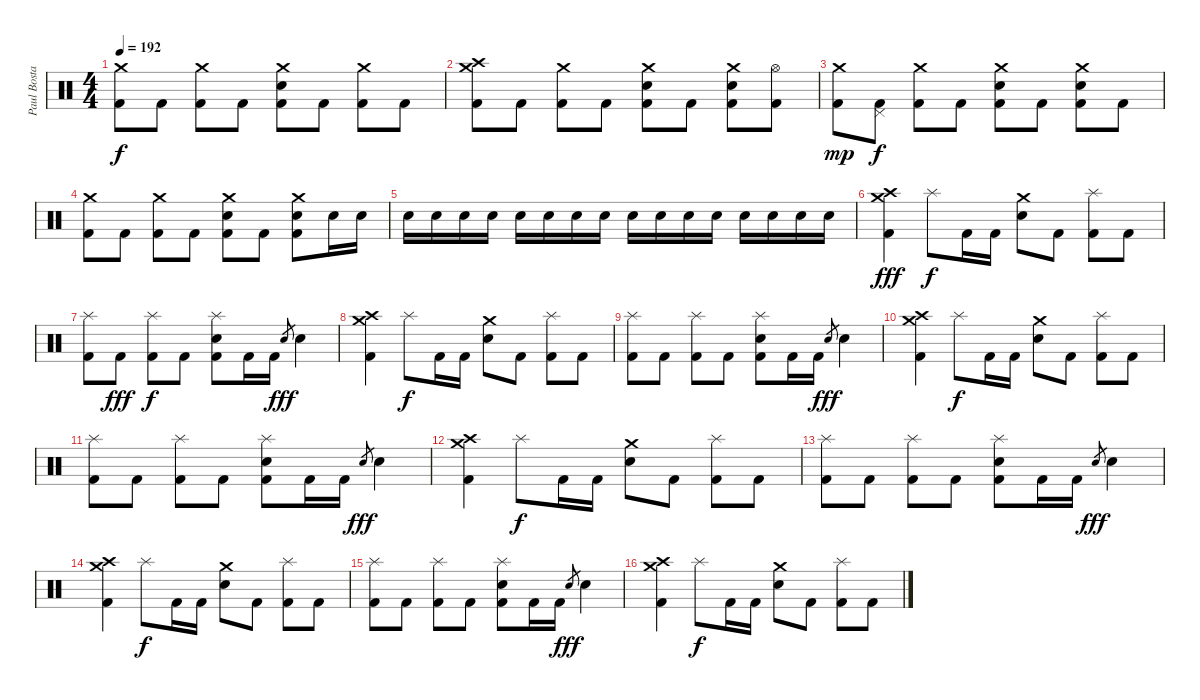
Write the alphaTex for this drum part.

\track ("Paul Bostaph" "Paul Bosta") {instrument percussion}
\staff {score}
\articulation defaults
\ts (4 4)
\tempo 192
\clef neutral
\ks c
("Crash medium (hit)" "Kick (hit) 2").8{dy f} "Kick (hit) 2".8 ("Crash medium (hit)" "Kick (hit) 2").8 "Kick (hit) 2".8 ("Electric Snare (hit)" "Crash medium (hit)" "Kick (hit) 2").8 "Kick (hit) 2".8 ("Crash medium (hit)" "Kick (hit) 2").8 "Kick (hit) 2".8 |
("Crash medium (hit)" "Crash high (hit)" "Kick (hit) 2").8 "Kick (hit) 2".8 ("Crash medium (hit)" "Kick (hit) 2").8 "Kick (hit) 2".8 ("Electric Snare (hit)" "Crash medium (hit)" "Kick (hit) 2").8 "Kick (hit) 2".8 ("Electric Snare (hit)" "Crash medium (hit)" "Kick (hit) 2").8 ("Hi-Hat (open)" "Kick (hit) 2").8 |
("Crash medium (hit)" "Kick (hit) 2").8{dy mp} ("Pedal Hi-Hat (hit)" "Kick (hit) 2").8{dy f} ("Crash medium (hit)" "Kick (hit) 2").8 "Kick (hit) 2".8 ("Electric Snare (hit)" "Crash medium (hit)" "Kick (hit) 2").8 "Kick (hit) 2".8 ("Electric Snare (hit)" "Crash medium (hit)" "Kick (hit) 2").8 "Kick (hit) 2".8 |
("Crash medium (hit)" "Kick (hit) 2").8 "Kick (hit) 2".8 ("Crash medium (hit)" "Kick (hit) 2").8 "Kick (hit) 2".8 ("Electric Snare (hit)" "Crash medium (hit)" "Kick (hit) 2").8 "Kick (hit) 2".8 ("Electric Snare (hit)" "Crash medium (hit)" "Kick (hit) 2").8 "Electric Snare (hit)".16 "Electric Snare (hit)".16 |
"Electric Snare (hit)".16 "Electric Snare (hit)".16 "Electric Snare (hit)".16 "Electric Snare (hit)".16 "Electric Snare (hit)".16 "Electric Snare (hit)".16 "Electric Snare (hit)".16 "Electric Snare (hit)".16 "Electric Snare (hit)".16 "Electric Snare (hit)".16 "Electric Snare (hit)".16 "Electric Snare (hit)".16 "Electric Snare (hit)".16 "Electric Snare (hit)".16 "Electric Snare (hit)".16 "Electric Snare (hit)".16 |
("Crash high (hit)" "Crash medium (hit)" "Kick (hit) 2").4{dy fff} "Splash (hit)".8{dy f} "Kick (hit) 2".16 "Kick (hit) 2".16 ("Crash medium (hit)" "Electric Snare (hit)").8 "Kick (hit) 2".8 ("Splash (hit)" "Kick (hit) 2").8 "Kick (hit) 2".8 |
("Splash (hit)" "Kick (hit) 2").8 "Kick (hit) 2".8{dy fff} ("Splash (hit)" "Kick (hit) 2").8{dy f} "Kick (hit) 2".8 ("Splash (hit)" "Electric Snare (hit)" "Kick (hit) 2").8 "Kick (hit) 2".16 "Kick (hit) 2".16 "Electric Snare (hit)".8{gr dy fff} "Electric Snare (hit)".4 |
("Crash high (hit)" "Crash medium (hit)" "Kick (hit) 2").4 "Splash (hit)".8{dy f} "Kick (hit) 2".16 "Kick (hit) 2".16 ("Crash medium (hit)" "Electric Snare (hit)").8 "Kick (hit) 2".8 ("Splash (hit)" "Kick (hit) 2").8 "Kick (hit) 2".8 |
("Splash (hit)" "Kick (hit) 2").8 "Kick (hit) 2".8 ("Splash (hit)" "Kick (hit) 2").8 "Kick (hit) 2".8 ("Splash (hit)" "Electric Snare (hit)" "Kick (hit) 2").8 "Kick (hit) 2".16 "Kick (hit) 2".16 "Electric Snare (hit)".8{gr dy fff} "Electric Snare (hit)".4 |
("Crash high (hit)" "Crash medium (hit)" "Kick (hit) 2").4 "Splash (hit)".8{dy f} "Kick (hit) 2".16 "Kick (hit) 2".16 ("Crash medium (hit)" "Electric Snare (hit)").8 "Kick (hit) 2".8 ("Splash (hit)" "Kick (hit) 2").8 "Kick (hit) 2".8 |
("Splash (hit)" "Kick (hit) 2").8 "Kick (hit) 2".8 ("Splash (hit)" "Kick (hit) 2").8 "Kick (hit) 2".8 ("Splash (hit)" "Electric Snare (hit)" "Kick (hit) 2").8 "Kick (hit) 2".16 "Kick (hit) 2".16 "Electric Snare (hit)".8{gr dy fff} "Electric Snare (hit)".4 |
("Crash high (hit)" "Crash medium (hit)" "Kick (hit) 2").4 "Splash (hit)".8{dy f} "Kick (hit) 2".16 "Kick (hit) 2".16 ("Crash medium (hit)" "Electric Snare (hit)").8 "Kick (hit) 2".8 ("Splash (hit)" "Kick (hit) 2").8 "Kick (hit) 2".8 |
("Splash (hit)" "Kick (hit) 2").8 "Kick (hit) 2".8 ("Splash (hit)" "Kick (hit) 2").8 "Kick (hit) 2".8 ("Splash (hit)" "Electric Snare (hit)" "Kick (hit) 2").8 "Kick (hit) 2".16 "Kick (hit) 2".16 "Electric Snare (hit)".8{gr dy fff} "Electric Snare (hit)".4 |
("Crash high (hit)" "Crash medium (hit)" "Kick (hit) 2").4 "Splash (hit)".8{dy f} "Kick (hit) 2".16 "Kick (hit) 2".16 ("Crash medium (hit)" "Electric Snare (hit)").8 "Kick (hit) 2".8 ("Splash (hit)" "Kick (hit) 2").8 "Kick (hit) 2".8 |
("Splash (hit)" "Kick (hit) 2").8 "Kick (hit) 2".8 ("Splash (hit)" "Kick (hit) 2").8 "Kick (hit) 2".8 ("Splash (hit)" "Electric Snare (hit)" "Kick (hit) 2").8 "Kick (hit) 2".16 "Kick (hit) 2".16 "Electric Snare (hit)".8{gr dy fff} "Electric Snare (hit)".4 |
("Crash high (hit)" "Crash medium (hit)" "Kick (hit) 2").4 "Splash (hit)".8{dy f} "Kick (hit) 2".16 "Kick (hit) 2".16 ("Crash medium (hit)" "Electric Snare (hit)").8 "Kick (hit) 2".8 ("Splash (hit)" "Kick (hit) 2").8 "Kick (hit) 2".8
